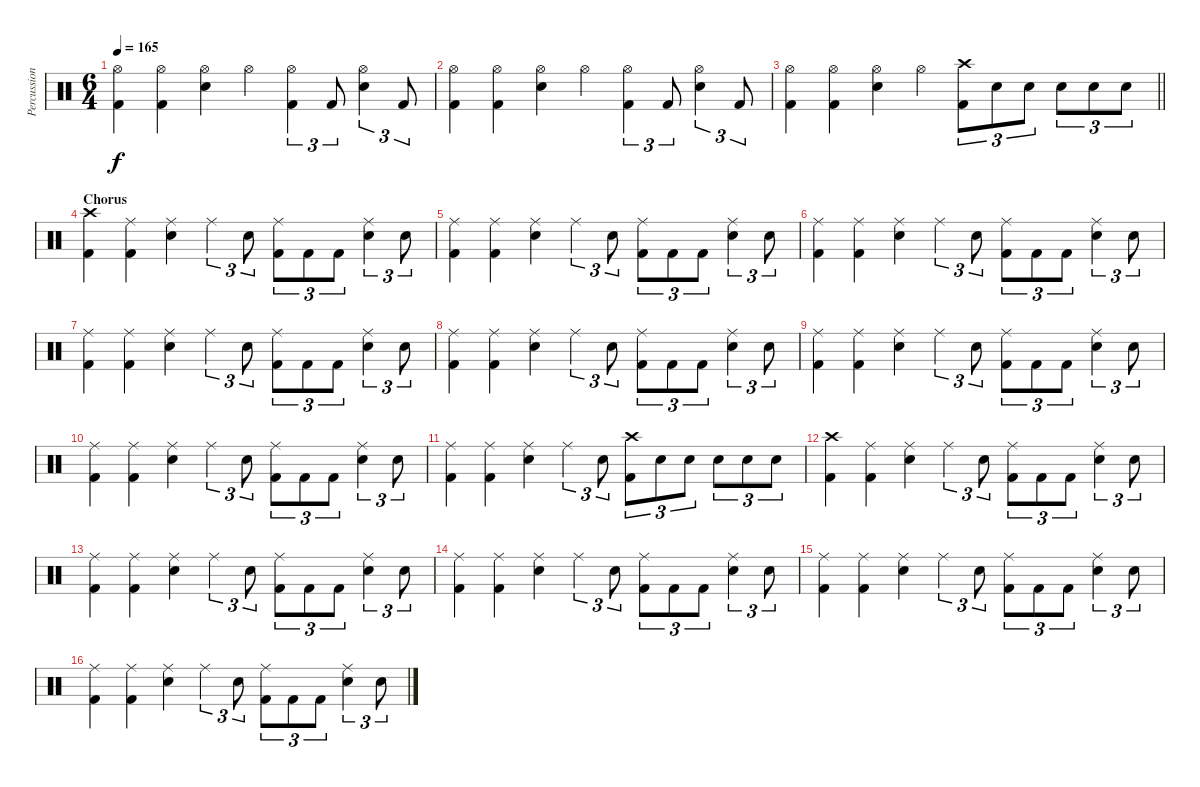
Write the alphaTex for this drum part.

\track ("Percussion" "Percussion") {instrument percussion}
\staff {score}
\articulation defaults
\ts (6 4)
\tempo 165
\clef neutral
\ks c
("Hi-Hat (open)" "Kick (hit) 2").4{dy f} ("Hi-Hat (open)" "Kick (hit) 2").4 ("Hi-Hat (open)" "Electric Snare (hit)").4 "Hi-Hat (open)".4 ("Hi-Hat (open)" "Kick (hit) 2").4{tu (3 2)} "Kick (hit) 2".8{tu (3 2)} ("Hi-Hat (open)" "Electric Snare (hit)").4{tu (3 2)} "Kick (hit) 2".8{tu (3 2)} |
("Hi-Hat (open)" "Kick (hit) 2").4 ("Hi-Hat (open)" "Kick (hit) 2").4 ("Hi-Hat (open)" "Electric Snare (hit)").4 "Hi-Hat (open)".4 ("Hi-Hat (open)" "Kick (hit) 2").4{tu (3 2)} "Kick (hit) 2".8{tu (3 2)} ("Hi-Hat (open)" "Electric Snare (hit)").4{tu (3 2)} "Kick (hit) 2".8{tu (3 2)} |
\barLineRight lightlight
("Hi-Hat (open)" "Kick (hit) 2").4 ("Hi-Hat (open)" "Kick (hit) 2").4 ("Hi-Hat (open)" "Electric Snare (hit)").4 "Hi-Hat (open)".4 ("Crash high (hit)" "Kick (hit) 2").8{tu (3 2)} "Electric Snare (hit)".8{tu (3 2)} "Electric Snare (hit)".8{tu (3 2)} "Electric Snare (hit)".8{tu (3 2)} "Electric Snare (hit)".8{tu (3 2)} "Electric Snare (hit)".8{tu (3 2)} |
\section ("" "Chorus")
("Crash high (hit)" "Kick (hit) 2").4 ("Ride (middle)" "Kick (hit) 2").4 ("Ride (middle)" "Electric Snare (hit)").4 "Ride (middle)".4{tu (3 2)} "Electric Snare (hit)".8{tu (3 2)} ("Ride (middle)" "Kick (hit) 2").8{tu (3 2)} "Kick (hit) 2".8{tu (3 2)} "Kick (hit) 2".8{tu (3 2)} ("Ride (middle)" "Electric Snare (hit)").4{tu (3 2)} "Electric Snare (hit)".8{tu (3 2)} |
("Ride (middle)" "Kick (hit) 2").4 ("Ride (middle)" "Kick (hit) 2").4 ("Ride (middle)" "Electric Snare (hit)").4 "Ride (middle)".4{tu (3 2)} "Electric Snare (hit)".8{tu (3 2)} ("Ride (middle)" "Kick (hit) 2").8{tu (3 2)} "Kick (hit) 2".8{tu (3 2)} "Kick (hit) 2".8{tu (3 2)} ("Ride (middle)" "Electric Snare (hit)").4{tu (3 2)} "Electric Snare (hit)".8{tu (3 2)} |
("Ride (middle)" "Kick (hit) 2").4 ("Ride (middle)" "Kick (hit) 2").4 ("Ride (middle)" "Electric Snare (hit)").4 "Ride (middle)".4{tu (3 2)} "Electric Snare (hit)".8{tu (3 2)} ("Ride (middle)" "Kick (hit) 2").8{tu (3 2)} "Kick (hit) 2".8{tu (3 2)} "Kick (hit) 2".8{tu (3 2)} ("Ride (middle)" "Electric Snare (hit)").4{tu (3 2)} "Electric Snare (hit)".8{tu (3 2)} |
("Ride (middle)" "Kick (hit) 2").4 ("Ride (middle)" "Kick (hit) 2").4 ("Ride (middle)" "Electric Snare (hit)").4 "Ride (middle)".4{tu (3 2)} "Electric Snare (hit)".8{tu (3 2)} ("Ride (middle)" "Kick (hit) 2").8{tu (3 2)} "Kick (hit) 2".8{tu (3 2)} "Kick (hit) 2".8{tu (3 2)} ("Ride (middle)" "Electric Snare (hit)").4{tu (3 2)} "Electric Snare (hit)".8{tu (3 2)} |
("Ride (middle)" "Kick (hit) 2").4 ("Ride (middle)" "Kick (hit) 2").4 ("Ride (middle)" "Electric Snare (hit)").4 "Ride (middle)".4{tu (3 2)} "Electric Snare (hit)".8{tu (3 2)} ("Ride (middle)" "Kick (hit) 2").8{tu (3 2)} "Kick (hit) 2".8{tu (3 2)} "Kick (hit) 2".8{tu (3 2)} ("Ride (middle)" "Electric Snare (hit)").4{tu (3 2)} "Electric Snare (hit)".8{tu (3 2)} |
("Ride (middle)" "Kick (hit) 2").4 ("Ride (middle)" "Kick (hit) 2").4 ("Ride (middle)" "Electric Snare (hit)").4 "Ride (middle)".4{tu (3 2)} "Electric Snare (hit)".8{tu (3 2)} ("Ride (middle)" "Kick (hit) 2").8{tu (3 2)} "Kick (hit) 2".8{tu (3 2)} "Kick (hit) 2".8{tu (3 2)} ("Ride (middle)" "Electric Snare (hit)").4{tu (3 2)} "Electric Snare (hit)".8{tu (3 2)} |
("Ride (middle)" "Kick (hit) 2").4 ("Ride (middle)" "Kick (hit) 2").4 ("Ride (middle)" "Electric Snare (hit)").4 "Ride (middle)".4{tu (3 2)} "Electric Snare (hit)".8{tu (3 2)} ("Ride (middle)" "Kick (hit) 2").8{tu (3 2)} "Kick (hit) 2".8{tu (3 2)} "Kick (hit) 2".8{tu (3 2)} ("Ride (middle)" "Electric Snare (hit)").4{tu (3 2)} "Electric Snare (hit)".8{tu (3 2)} |
("Ride (middle)" "Kick (hit) 2").4 ("Ride (middle)" "Kick (hit) 2").4 ("Ride (middle)" "Electric Snare (hit)").4 "Ride (middle)".4{tu (3 2)} "Electric Snare (hit)".8{tu (3 2)} ("Crash high (hit)" "Kick (hit) 2").8{tu (3 2)} "Electric Snare (hit)".8{tu (3 2)} "Electric Snare (hit)".8{tu (3 2)} "Electric Snare (hit)".8{tu (3 2)} "Electric Snare (hit)".8{tu (3 2)} "Electric Snare (hit)".8{tu (3 2)} |
("Crash high (hit)" "Kick (hit) 2").4 ("Ride (middle)" "Kick (hit) 2").4 ("Ride (middle)" "Electric Snare (hit)").4 "Ride (middle)".4{tu (3 2)} "Electric Snare (hit)".8{tu (3 2)} ("Ride (middle)" "Kick (hit) 2").8{tu (3 2)} "Kick (hit) 2".8{tu (3 2)} "Kick (hit) 2".8{tu (3 2)} ("Ride (middle)" "Electric Snare (hit)").4{tu (3 2)} "Electric Snare (hit)".8{tu (3 2)} |
("Ride (middle)" "Kick (hit) 2").4 ("Ride (middle)" "Kick (hit) 2").4 ("Ride (middle)" "Electric Snare (hit)").4 "Ride (middle)".4{tu (3 2)} "Electric Snare (hit)".8{tu (3 2)} ("Ride (middle)" "Kick (hit) 2").8{tu (3 2)} "Kick (hit) 2".8{tu (3 2)} "Kick (hit) 2".8{tu (3 2)} ("Ride (middle)" "Electric Snare (hit)").4{tu (3 2)} "Electric Snare (hit)".8{tu (3 2)} |
("Ride (middle)" "Kick (hit) 2").4 ("Ride (middle)" "Kick (hit) 2").4 ("Ride (middle)" "Electric Snare (hit)").4 "Ride (middle)".4{tu (3 2)} "Electric Snare (hit)".8{tu (3 2)} ("Ride (middle)" "Kick (hit) 2").8{tu (3 2)} "Kick (hit) 2".8{tu (3 2)} "Kick (hit) 2".8{tu (3 2)} ("Ride (middle)" "Electric Snare (hit)").4{tu (3 2)} "Electric Snare (hit)".8{tu (3 2)} |
("Ride (middle)" "Kick (hit) 2").4 ("Ride (middle)" "Kick (hit) 2").4 ("Ride (middle)" "Electric Snare (hit)").4 "Ride (middle)".4{tu (3 2)} "Electric Snare (hit)".8{tu (3 2)} ("Ride (middle)" "Kick (hit) 2").8{tu (3 2)} "Kick (hit) 2".8{tu (3 2)} "Kick (hit) 2".8{tu (3 2)} ("Ride (middle)" "Electric Snare (hit)").4{tu (3 2)} "Electric Snare (hit)".8{tu (3 2)} |
("Ride (middle)" "Kick (hit) 2").4 ("Ride (middle)" "Kick (hit) 2").4 ("Ride (middle)" "Electric Snare (hit)").4 "Ride (middle)".4{tu (3 2)} "Electric Snare (hit)".8{tu (3 2)} ("Ride (middle)" "Kick (hit) 2").8{tu (3 2)} "Kick (hit) 2".8{tu (3 2)} "Kick (hit) 2".8{tu (3 2)} ("Ride (middle)" "Electric Snare (hit)").4{tu (3 2)} "Electric Snare (hit)".8{tu (3 2)}
